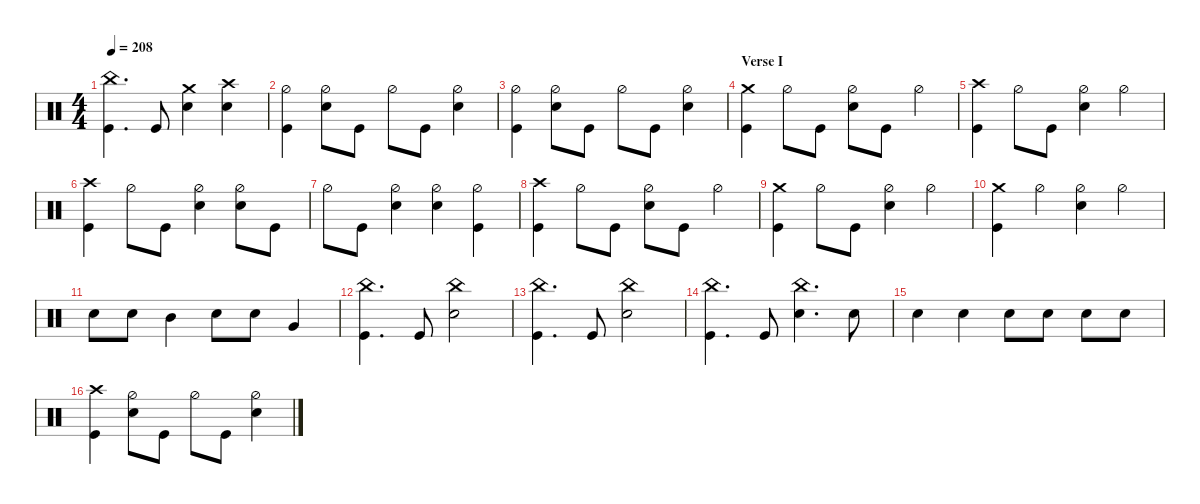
\defaultSystemsLayout 4
\hideDynamics
\bracketExtendMode nobrackets
\singleTrackTrackNamePolicy hidden
\multiTrackTrackNamePolicy hidden
\otherSystemsTrackNameOrientation horizontal
\track ("Drums" "drm.") {multiBarRest instrument percussion}
\staff {score}
\articulation defaults
\ts (4 4)
\tempo 208
\clef neutral
\ks c
("China (hit)" "Kick (hit)").4{d dy f beam Down} "Kick (hit)".8{beam Up} ("Snare (hit) 2" "Crash medium (hit)").4{beam Down} ("Snare (hit) 2" "Crash high (hit)").4{beam Down} |
("Kick (hit)" "Hi-Hat (half)").4{beam Down} ("Snare (hit) 2" "Hi-Hat (half)").8{beam Down} "Kick (hit)".8{beam Down} "Hi-Hat (half)".8{beam Down} "Kick (hit)".8{beam Down} ("Snare (hit) 2" "Hi-Hat (half)").4{beam Down} |
("Kick (hit)" "Hi-Hat (half)").4{beam Down} ("Snare (hit) 2" "Hi-Hat (half)").8{beam Down} "Kick (hit)".8{beam Down} "Hi-Hat (half)".8{beam Down} "Kick (hit)".8{beam Down} ("Snare (hit) 2" "Hi-Hat (half)").4{beam Down} |
\section ("" "Verse I")
("Kick (hit)" "Crash medium (hit)").4{beam Down} "Hi-Hat (half)".8{beam Down} "Kick (hit)".8{beam Down} ("Snare (hit) 2" "Hi-Hat (half)").8{beam Down} "Kick (hit)".8{beam Down} "Hi-Hat (half)".4{beam Down} |
("Crash high (hit)" "Kick (hit)").4{beam Down} "Hi-Hat (half)".8{beam Down} "Kick (hit)".8{beam Down} ("Snare (hit) 2" "Hi-Hat (half)").4{beam Down} "Hi-Hat (half)".4{beam Down} |
("Crash high (hit)" "Kick (hit)").4{beam Down} "Hi-Hat (half)".8{beam Down} "Kick (hit)".8{beam Down} ("Snare (hit) 2" "Hi-Hat (half)").4{beam Down} ("Snare (hit) 2" "Hi-Hat (half)").8{beam Down} "Kick (hit)".8{beam Down} |
"Hi-Hat (half)".8{dy mf beam Down} "Kick (hit)".8{dy f beam Down} ("Snare (hit) 2" "Hi-Hat (half)").4{beam Down} ("Snare (hit) 2" "Hi-Hat (half)").4{beam Down} ("Hi-Hat (half)" "Kick (hit)").4{beam Down} |
("Kick (hit)" "Crash high (hit)").4{beam Down} "Hi-Hat (half)".8{beam Down} "Kick (hit)".8{beam Down} ("Snare (hit) 2" "Hi-Hat (half)").8{beam Down} "Kick (hit)".8{beam Down} "Hi-Hat (half)".4{beam Down} |
("Kick (hit)" "Crash medium (hit)").4{beam Down} "Hi-Hat (half)".8{beam Down} "Kick (hit)".8{beam Down} ("Snare (hit) 2" "Hi-Hat (half)").4{beam Down} "Hi-Hat (half)".4{beam Down} |
("Kick (hit)" "Crash medium (hit)").4{beam Down} "Hi-Hat (half)".4{beam Down} ("Snare (hit) 2" "Hi-Hat (half)").4{beam Down} "Hi-Hat (half)".4{beam Down} |
"Snare (hit) 2".8{beam Down} "Snare (hit) 2".8{beam Down} "Mid Tom (hit)".4{dy ff beam Down} "Snare (hit) 2".8{dy f beam Down} "Snare (hit) 2".8{beam Down} "Very Low Tom (hit)".4{dy ff beam Up} |
("China (hit)" "Kick (hit)").4{d dy f beam Down} "Kick (hit)".8{beam Up} ("Snare (hit) 2" "China (hit)").2{beam Down} |
("China (hit)" "Kick (hit)").4{d beam Down} "Kick (hit)".8{beam Up} ("Snare (hit) 2" "China (hit)").2{beam Down} |
("China (hit)" "Kick (hit)").4{d beam Down} "Kick (hit)".8{beam Up} ("Snare (hit) 2" "China (hit)").4{d beam Down} "Snare (hit) 2".8{beam Down} |
"Snare (hit) 2".4{beam Down} "Snare (hit) 2".4{beam Down} "Snare (hit) 2".8{beam Down} "Snare (hit) 2".8{beam Down} "Snare (hit) 2".8{beam Down} "Snare (hit) 2".8{beam Down} |
("Crash high (hit)" "Kick (hit)").4{beam Down} ("Snare (hit) 2" "Hi-Hat (half)").8{beam Down} "Kick (hit)".8{beam Down} "Hi-Hat (half)".8{beam Down} "Kick (hit)".8{beam Down} ("Snare (hit) 2" "Hi-Hat (half)").4{beam Down}
